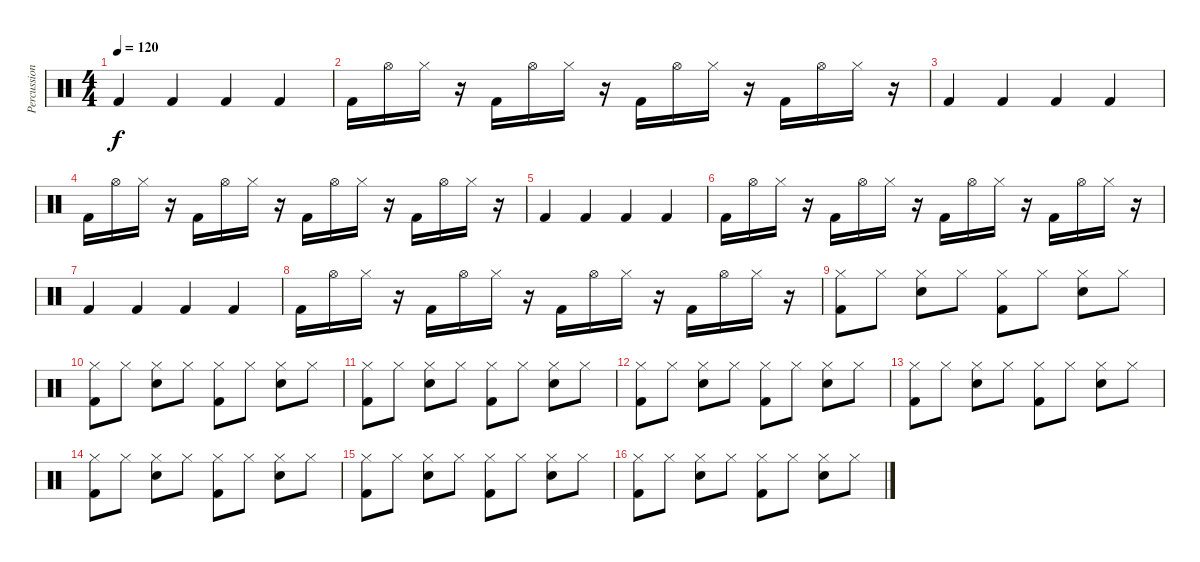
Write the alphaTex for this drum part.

\track ("Percussions" "Percussion") {instrument percussion}
\staff {score}
\articulation defaults
\ts (4 4)
\tempo 120
\clef neutral
\ks c "Kick (hit) 2".4{dy f} "Kick (hit) 2".4 "Kick (hit) 2".4 "Kick (hit) 2".4
|
"Kick (hit) 2".16 "Hi-Hat (open)".16 "Hi-Hat (closed)".16 r.16 "Kick (hit) 2".16 "Hi-Hat (open)".16 "Hi-Hat (closed)".16 r.16 "Kick (hit) 2".16 "Hi-Hat (open)".16 "Hi-Hat (closed)".16 r.16 "Kick (hit) 2".16 "Hi-Hat (open)".16 "Hi-Hat (closed)".16 r.16 |
"Kick (hit) 2".4 "Kick (hit) 2".4 "Kick (hit) 2".4 "Kick (hit) 2".4 |
"Kick (hit) 2".16 "Hi-Hat (open)".16 "Hi-Hat (closed)".16 r.16 "Kick (hit) 2".16 "Hi-Hat (open)".16 "Hi-Hat (closed)".16 r.16 "Kick (hit) 2".16 "Hi-Hat (open)".16 "Hi-Hat (closed)".16 r.16 "Kick (hit) 2".16 "Hi-Hat (open)".16 "Hi-Hat (closed)".16 r.16 |
"Kick (hit) 2".4 "Kick (hit) 2".4 "Kick (hit) 2".4 "Kick (hit) 2".4 |
"Kick (hit) 2".16 "Hi-Hat (open)".16 "Hi-Hat (closed)".16 r.16 "Kick (hit) 2".16 "Hi-Hat (open)".16 "Hi-Hat (closed)".16 r.16 "Kick (hit) 2".16 "Hi-Hat (open)".16 "Hi-Hat (closed)".16 r.16 "Kick (hit) 2".16 "Hi-Hat (open)".16 "Hi-Hat (closed)".16 r.16 |
"Kick (hit) 2".4 "Kick (hit) 2".4 "Kick (hit) 2".4 "Kick (hit) 2".4 |
"Kick (hit) 2".16 "Hi-Hat (open)".16 "Hi-Hat (closed)".16 r.16 "Kick (hit) 2".16 "Hi-Hat (open)".16 "Hi-Hat (closed)".16 r.16 "Kick (hit) 2".16 "Hi-Hat (open)".16 "Hi-Hat (closed)".16 r.16 "Kick (hit) 2".16 "Hi-Hat (open)".16 "Hi-Hat (closed)".16 r.16 |
("Hi-Hat (closed)" "Kick (hit) 2").8 "Hi-Hat (closed)".8 ("Hi-Hat (closed)" "Electric Snare (hit)").8 "Hi-Hat (closed)".8 ("Hi-Hat (closed)" "Kick (hit) 2").8 "Hi-Hat (closed)".8 ("Hi-Hat (closed)" "Electric Snare (hit)").8 "Hi-Hat (closed)".8 |
("Hi-Hat (closed)" "Kick (hit) 2").8 "Hi-Hat (closed)".8 ("Hi-Hat (closed)" "Electric Snare (hit)").8 "Hi-Hat (closed)".8 ("Hi-Hat (closed)" "Kick (hit) 2").8 "Hi-Hat (closed)".8 ("Hi-Hat (closed)" "Electric Snare (hit)").8 "Hi-Hat (closed)".8 |
("Hi-Hat (closed)" "Kick (hit) 2").8 "Hi-Hat (closed)".8 ("Hi-Hat (closed)" "Electric Snare (hit)").8 "Hi-Hat (closed)".8 ("Hi-Hat (closed)" "Kick (hit) 2").8 "Hi-Hat (closed)".8 ("Hi-Hat (closed)" "Electric Snare (hit)").8 "Hi-Hat (closed)".8 |
("Hi-Hat (closed)" "Kick (hit) 2").8 "Hi-Hat (closed)".8 ("Hi-Hat (closed)" "Electric Snare (hit)").8 "Hi-Hat (closed)".8 ("Hi-Hat (closed)" "Kick (hit) 2").8 "Hi-Hat (closed)".8 ("Hi-Hat (closed)" "Electric Snare (hit)").8 "Hi-Hat (closed)".8 |
("Hi-Hat (closed)" "Kick (hit) 2").8 "Hi-Hat (closed)".8 ("Hi-Hat (closed)" "Electric Snare (hit)").8 "Hi-Hat (closed)".8 ("Hi-Hat (closed)" "Kick (hit) 2").8 "Hi-Hat (closed)".8 ("Hi-Hat (closed)" "Electric Snare (hit)").8 "Hi-Hat (closed)".8 |
("Hi-Hat (closed)" "Kick (hit) 2").8 "Hi-Hat (closed)".8 ("Hi-Hat (closed)" "Electric Snare (hit)").8 "Hi-Hat (closed)".8 ("Hi-Hat (closed)" "Kick (hit) 2").8 "Hi-Hat (closed)".8 ("Hi-Hat (closed)" "Electric Snare (hit)").8 "Hi-Hat (closed)".8 |
("Hi-Hat (closed)" "Kick (hit) 2").8 "Hi-Hat (closed)".8 ("Hi-Hat (closed)" "Electric Snare (hit)").8 "Hi-Hat (closed)".8 ("Hi-Hat (closed)" "Kick (hit) 2").8 "Hi-Hat (closed)".8 ("Hi-Hat (closed)" "Electric Snare (hit)").8 "Hi-Hat (closed)".8 |
("Hi-Hat (closed)" "Kick (hit) 2").8 "Hi-Hat (closed)".8 ("Hi-Hat (closed)" "Electric Snare (hit)").8 "Hi-Hat (closed)".8 ("Hi-Hat (closed)" "Kick (hit) 2").8 "Hi-Hat (closed)".8 ("Hi-Hat (closed)" "Electric Snare (hit)").8 "Hi-Hat (closed)".8
